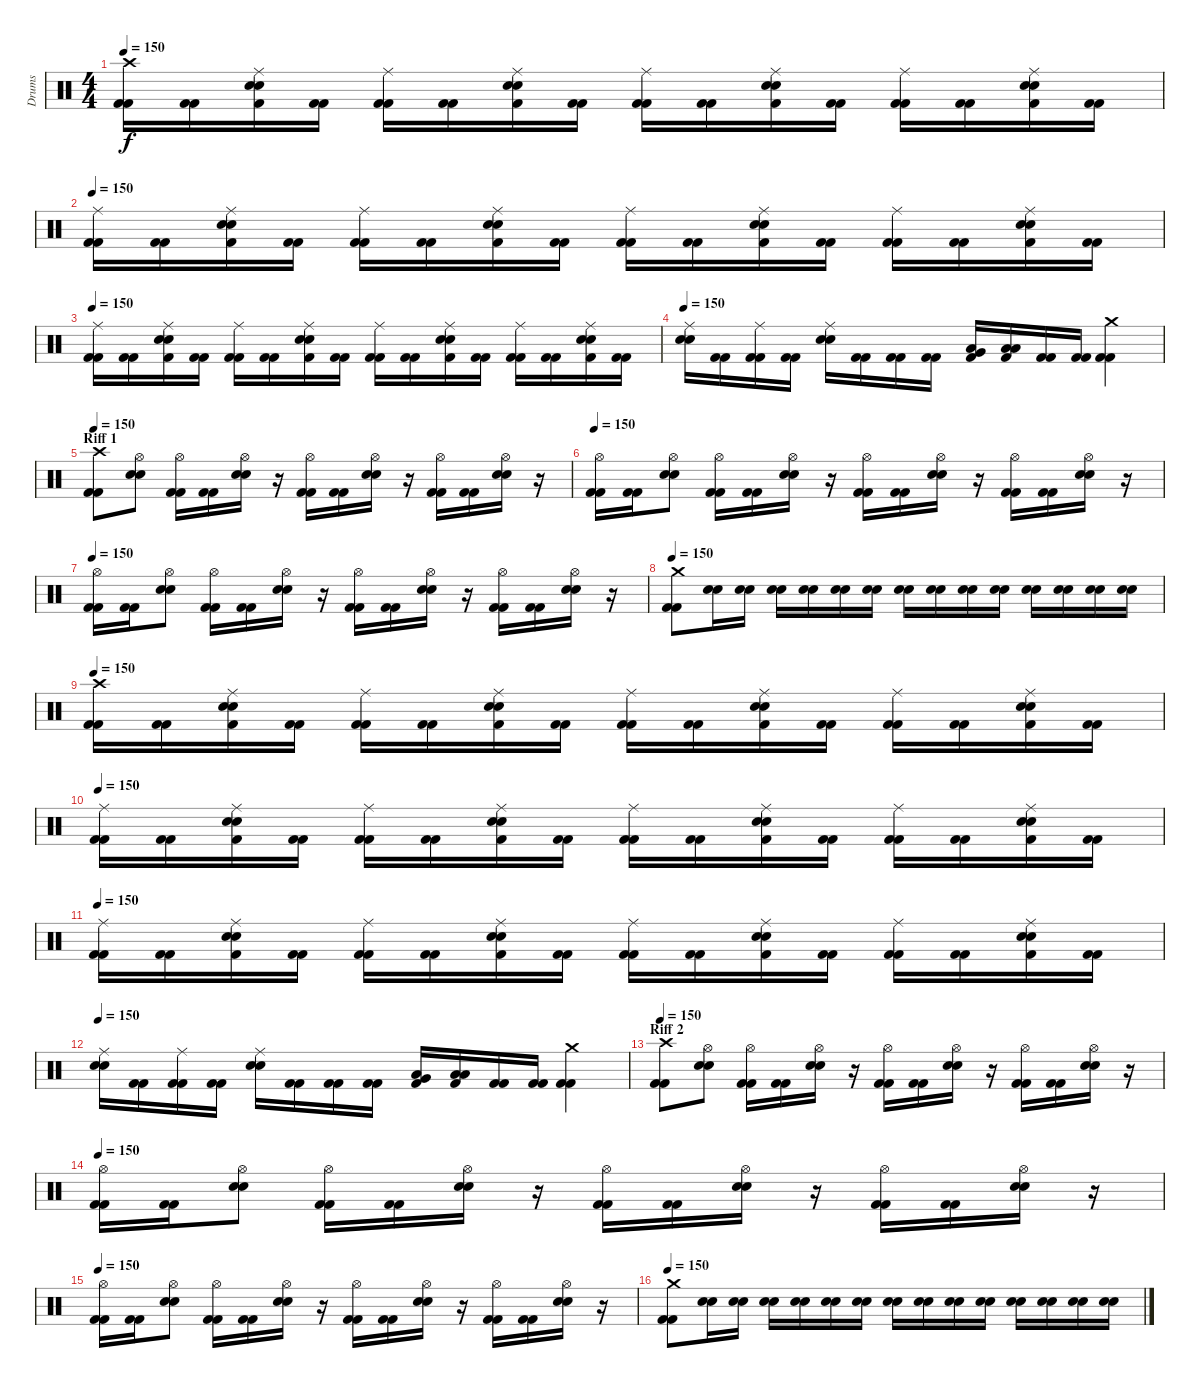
\track ("Drums" "Drums") {instrument percussion}
\staff {score}
\articulation defaults
\ts (4 4)
\tempo 150
\clef neutral
\ks c
("Crash high (hit)" "Kick (hit) 2" "Kick (hit) 2").16{dy f} ("Kick (hit) 2" "Kick (hit) 2").16 ("Ride (middle)" "Snare (hit) 2" "Snare (hit) 2" "Kick (hit) 2").16 ("Kick (hit) 2" "Kick (hit) 2").16 ("Ride (middle)" "Kick (hit) 2" "Kick (hit) 2").16 ("Kick (hit) 2" "Kick (hit) 2").16 ("Ride (middle)" "Snare (hit) 2" "Snare (hit) 2" "Kick (hit) 2").16 ("Kick (hit) 2" "Kick (hit) 2").16 ("Ride (middle)" "Kick (hit) 2" "Kick (hit) 2").16 ("Kick (hit) 2" "Kick (hit) 2").16 ("Ride (middle)" "Snare (hit) 2" "Snare (hit) 2" "Kick (hit) 2").16 ("Kick (hit) 2" "Kick (hit) 2").16 ("Ride (middle)" "Kick (hit) 2" "Kick (hit) 2").16 ("Kick (hit) 2" "Kick (hit) 2").16 ("Ride (middle)" "Snare (hit) 2" "Snare (hit) 2" "Kick (hit) 2").16 ("Kick (hit) 2" "Kick (hit) 2").16 |
\tempo 150
("Ride (middle)" "Kick (hit) 2" "Kick (hit) 2").16 ("Kick (hit) 2" "Kick (hit) 2").16 ("Ride (middle)" "Snare (hit) 2" "Snare (hit) 2" "Kick (hit) 2").16 ("Kick (hit) 2" "Kick (hit) 2").16 ("Ride (middle)" "Kick (hit) 2" "Kick (hit) 2").16 ("Kick (hit) 2" "Kick (hit) 2").16 ("Ride (middle)" "Snare (hit) 2" "Snare (hit) 2" "Kick (hit) 2").16 ("Kick (hit) 2" "Kick (hit) 2").16 ("Ride (middle)" "Kick (hit) 2" "Kick (hit) 2").16 ("Kick (hit) 2" "Kick (hit) 2").16 ("Ride (middle)" "Snare (hit) 2" "Snare (hit) 2" "Kick (hit) 2").16 ("Kick (hit) 2" "Kick (hit) 2").16 ("Ride (middle)" "Kick (hit) 2" "Kick (hit) 2").16 ("Kick (hit) 2" "Kick (hit) 2").16 ("Ride (middle)" "Snare (hit) 2" "Snare (hit) 2" "Kick (hit) 2").16 ("Kick (hit) 2" "Kick (hit) 2").16 |
\tempo 150
("Ride (middle)" "Kick (hit) 2" "Kick (hit) 2").16 ("Kick (hit) 2" "Kick (hit) 2").16 ("Ride (middle)" "Snare (hit) 2" "Snare (hit) 2" "Kick (hit) 2").16 ("Kick (hit) 2" "Kick (hit) 2").16 ("Ride (middle)" "Kick (hit) 2" "Kick (hit) 2").16 ("Kick (hit) 2" "Kick (hit) 2").16 ("Ride (middle)" "Snare (hit) 2" "Snare (hit) 2" "Kick (hit) 2").16 ("Kick (hit) 2" "Kick (hit) 2").16 ("Ride (middle)" "Kick (hit) 2" "Kick (hit) 2").16 ("Kick (hit) 2" "Kick (hit) 2").16 ("Ride (middle)" "Snare (hit) 2" "Snare (hit) 2" "Kick (hit) 2").16 ("Kick (hit) 2" "Kick (hit) 2").16 ("Ride (middle)" "Kick (hit) 2" "Kick (hit) 2").16 ("Kick (hit) 2" "Kick (hit) 2").16 ("Ride (middle)" "Snare (hit) 2" "Snare (hit) 2" "Kick (hit) 2").16 ("Kick (hit) 2" "Kick (hit) 2").16 |
\tempo 150
("Ride (middle)" "Snare (hit) 2" "Snare (hit) 2").16 ("Kick (hit) 2" "Kick (hit) 2").16 ("Ride (middle)" "Kick (hit) 2" "Kick (hit) 2").16 ("Kick (hit) 2" "Kick (hit) 2").16 ("Ride (middle)" "Snare (hit) 2" "Snare (hit) 2").16 ("Kick (hit) 2" "Kick (hit) 2").16 ("Kick (hit) 2" "Kick (hit) 2").16 ("Kick (hit) 2" "Kick (hit) 2").16 ("Very Low Tom (hit)" "Low Tom (hit)" "Kick (hit) 2").16 ("Low Tom (hit)" "Low Tom (hit)" "Kick (hit) 2").16 ("Kick (hit) 2" "Kick (hit) 2").16 ("Kick (hit) 2" "Kick (hit) 2").16 ("Crash medium (hit)" "Kick (hit) 2" "Kick (hit) 2").4 |
\section ("" "Riff 1")
\tempo 150
("Crash high (hit)" "Kick (hit) 2" "Kick (hit) 2").8 ("Hi-Hat (open)" "Snare (hit) 2" "Snare (hit) 2").8 ("Hi-Hat (open)" "Kick (hit) 2" "Kick (hit) 2").16 ("Kick (hit) 2" "Kick (hit) 2").16 ("Hi-Hat (open)" "Snare (hit) 2" "Snare (hit) 2").16 r.16 ("Hi-Hat (open)" "Kick (hit) 2" "Kick (hit) 2").16 ("Kick (hit) 2" "Kick (hit) 2").16 ("Hi-Hat (open)" "Snare (hit) 2" "Snare (hit) 2").16 r.16 ("Hi-Hat (open)" "Kick (hit) 2" "Kick (hit) 2").16 ("Kick (hit) 2" "Kick (hit) 2").16 ("Hi-Hat (open)" "Snare (hit) 2" "Snare (hit) 2").16 r.16 |
\tempo 150
("Hi-Hat (open)" "Kick (hit) 2" "Kick (hit) 2").16 ("Kick (hit) 2" "Kick (hit) 2").16 ("Hi-Hat (open)" "Snare (hit) 2" "Snare (hit) 2").8 ("Hi-Hat (open)" "Kick (hit) 2" "Kick (hit) 2").16 ("Kick (hit) 2" "Kick (hit) 2").16 ("Hi-Hat (open)" "Snare (hit) 2" "Snare (hit) 2").16 r.16 ("Hi-Hat (open)" "Kick (hit) 2" "Kick (hit) 2").16 ("Kick (hit) 2" "Kick (hit) 2").16 ("Hi-Hat (open)" "Snare (hit) 2" "Snare (hit) 2").16 r.16 ("Hi-Hat (open)" "Kick (hit) 2" "Kick (hit) 2").16 ("Kick (hit) 2" "Kick (hit) 2").16 ("Hi-Hat (open)" "Snare (hit) 2" "Snare (hit) 2").16 r.16 |
\tempo 150
("Hi-Hat (open)" "Kick (hit) 2" "Kick (hit) 2").16 ("Kick (hit) 2" "Kick (hit) 2").16 ("Hi-Hat (open)" "Snare (hit) 2" "Snare (hit) 2").8 ("Hi-Hat (open)" "Kick (hit) 2" "Kick (hit) 2").16 ("Kick (hit) 2" "Kick (hit) 2").16 ("Hi-Hat (open)" "Snare (hit) 2" "Snare (hit) 2").16 r.16 ("Hi-Hat (open)" "Kick (hit) 2" "Kick (hit) 2").16 ("Kick (hit) 2" "Kick (hit) 2").16 ("Hi-Hat (open)" "Snare (hit) 2" "Snare (hit) 2").16 r.16 ("Hi-Hat (open)" "Kick (hit) 2" "Kick (hit) 2").16 ("Kick (hit) 2" "Kick (hit) 2").16 ("Hi-Hat (open)" "Snare (hit) 2" "Snare (hit) 2").16 r.16 |
\tempo 150
("Crash medium (hit)" "Kick (hit) 2" "Kick (hit) 2").8 ("Snare (hit) 2" "Snare (hit) 2").16 ("Snare (hit) 2" "Snare (hit) 2").16 ("Snare (hit) 2" "Snare (hit) 2").16 ("Snare (hit) 2" "Snare (hit) 2").16 ("Snare (hit) 2" "Snare (hit) 2").16 ("Snare (hit) 2" "Snare (hit) 2").16 ("Snare (hit) 2" "Snare (hit) 2").16 ("Snare (hit) 2" "Snare (hit) 2").16 ("Snare (hit) 2" "Snare (hit) 2").16 ("Snare (hit) 2" "Snare (hit) 2").16 ("Snare (hit) 2" "Snare (hit) 2").16 ("Snare (hit) 2" "Snare (hit) 2").16 ("Snare (hit) 2" "Snare (hit) 2").16 ("Snare (hit) 2" "Snare (hit) 2").16 |
\tempo 150
("Crash high (hit)" "Kick (hit) 2" "Kick (hit) 2").16 ("Kick (hit) 2" "Kick (hit) 2").16 ("Ride (middle)" "Snare (hit) 2" "Snare (hit) 2" "Kick (hit) 2").16 ("Kick (hit) 2" "Kick (hit) 2").16 ("Ride (middle)" "Kick (hit) 2" "Kick (hit) 2").16 ("Kick (hit) 2" "Kick (hit) 2").16 ("Ride (middle)" "Snare (hit) 2" "Snare (hit) 2" "Kick (hit) 2").16 ("Kick (hit) 2" "Kick (hit) 2").16 ("Ride (middle)" "Kick (hit) 2" "Kick (hit) 2").16 ("Kick (hit) 2" "Kick (hit) 2").16 ("Ride (middle)" "Snare (hit) 2" "Snare (hit) 2" "Kick (hit) 2").16 ("Kick (hit) 2" "Kick (hit) 2").16 ("Ride (middle)" "Kick (hit) 2" "Kick (hit) 2").16 ("Kick (hit) 2" "Kick (hit) 2").16 ("Ride (middle)" "Snare (hit) 2" "Snare (hit) 2" "Kick (hit) 2").16 ("Kick (hit) 2" "Kick (hit) 2").16 |
\tempo 150
("Ride (middle)" "Kick (hit) 2" "Kick (hit) 2").16 ("Kick (hit) 2" "Kick (hit) 2").16 ("Ride (middle)" "Snare (hit) 2" "Snare (hit) 2" "Kick (hit) 2").16 ("Kick (hit) 2" "Kick (hit) 2").16 ("Ride (middle)" "Kick (hit) 2" "Kick (hit) 2").16 ("Kick (hit) 2" "Kick (hit) 2").16 ("Ride (middle)" "Snare (hit) 2" "Snare (hit) 2" "Kick (hit) 2").16 ("Kick (hit) 2" "Kick (hit) 2").16 ("Ride (middle)" "Kick (hit) 2" "Kick (hit) 2").16 ("Kick (hit) 2" "Kick (hit) 2").16 ("Ride (middle)" "Snare (hit) 2" "Snare (hit) 2" "Kick (hit) 2").16 ("Kick (hit) 2" "Kick (hit) 2").16 ("Ride (middle)" "Kick (hit) 2" "Kick (hit) 2").16 ("Kick (hit) 2" "Kick (hit) 2").16 ("Ride (middle)" "Snare (hit) 2" "Snare (hit) 2" "Kick (hit) 2").16 ("Kick (hit) 2" "Kick (hit) 2").16 |
\tempo 150
("Ride (middle)" "Kick (hit) 2" "Kick (hit) 2").16 ("Kick (hit) 2" "Kick (hit) 2").16 ("Ride (middle)" "Snare (hit) 2" "Snare (hit) 2" "Kick (hit) 2").16 ("Kick (hit) 2" "Kick (hit) 2").16 ("Ride (middle)" "Kick (hit) 2" "Kick (hit) 2").16 ("Kick (hit) 2" "Kick (hit) 2").16 ("Ride (middle)" "Snare (hit) 2" "Snare (hit) 2" "Kick (hit) 2").16 ("Kick (hit) 2" "Kick (hit) 2").16 ("Ride (middle)" "Kick (hit) 2" "Kick (hit) 2").16 ("Kick (hit) 2" "Kick (hit) 2").16 ("Ride (middle)" "Snare (hit) 2" "Snare (hit) 2" "Kick (hit) 2").16 ("Kick (hit) 2" "Kick (hit) 2").16 ("Ride (middle)" "Kick (hit) 2" "Kick (hit) 2").16 ("Kick (hit) 2" "Kick (hit) 2").16 ("Ride (middle)" "Snare (hit) 2" "Snare (hit) 2" "Kick (hit) 2").16 ("Kick (hit) 2" "Kick (hit) 2").16 |
\tempo 150
("Ride (middle)" "Snare (hit) 2" "Snare (hit) 2").16 ("Kick (hit) 2" "Kick (hit) 2").16 ("Ride (middle)" "Kick (hit) 2" "Kick (hit) 2").16 ("Kick (hit) 2" "Kick (hit) 2").16 ("Ride (middle)" "Snare (hit) 2" "Snare (hit) 2").16 ("Kick (hit) 2" "Kick (hit) 2").16 ("Kick (hit) 2" "Kick (hit) 2").16 ("Kick (hit) 2" "Kick (hit) 2").16 ("Very Low Tom (hit)" "Low Tom (hit)" "Kick (hit) 2").16 ("Low Tom (hit)" "Low Tom (hit)" "Kick (hit) 2").16 ("Kick (hit) 2" "Kick (hit) 2").16 ("Kick (hit) 2" "Kick (hit) 2").16 ("Crash medium (hit)" "Kick (hit) 2" "Kick (hit) 2").4 |
\section ("" "Riff 2")
\tempo 150
("Crash high (hit)" "Kick (hit) 2" "Kick (hit) 2").8 ("Hi-Hat (open)" "Snare (hit) 2" "Snare (hit) 2").8 ("Hi-Hat (open)" "Kick (hit) 2" "Kick (hit) 2").16 ("Kick (hit) 2" "Kick (hit) 2").16 ("Hi-Hat (open)" "Snare (hit) 2" "Snare (hit) 2").16 r.16 ("Hi-Hat (open)" "Kick (hit) 2" "Kick (hit) 2").16 ("Kick (hit) 2" "Kick (hit) 2").16 ("Hi-Hat (open)" "Snare (hit) 2" "Snare (hit) 2").16 r.16 ("Hi-Hat (open)" "Kick (hit) 2" "Kick (hit) 2").16 ("Kick (hit) 2" "Kick (hit) 2").16 ("Hi-Hat (open)" "Snare (hit) 2" "Snare (hit) 2").16 r.16 |
\tempo 150
("Hi-Hat (open)" "Kick (hit) 2" "Kick (hit) 2").16 ("Kick (hit) 2" "Kick (hit) 2").16 ("Hi-Hat (open)" "Snare (hit) 2" "Snare (hit) 2").8 ("Hi-Hat (open)" "Kick (hit) 2" "Kick (hit) 2").16 ("Kick (hit) 2" "Kick (hit) 2").16 ("Hi-Hat (open)" "Snare (hit) 2" "Snare (hit) 2").16 r.16 ("Hi-Hat (open)" "Kick (hit) 2" "Kick (hit) 2").16 ("Kick (hit) 2" "Kick (hit) 2").16 ("Hi-Hat (open)" "Snare (hit) 2" "Snare (hit) 2").16 r.16 ("Hi-Hat (open)" "Kick (hit) 2" "Kick (hit) 2").16 ("Kick (hit) 2" "Kick (hit) 2").16 ("Hi-Hat (open)" "Snare (hit) 2" "Snare (hit) 2").16 r.16 |
\tempo 150
("Hi-Hat (open)" "Kick (hit) 2" "Kick (hit) 2").16 ("Kick (hit) 2" "Kick (hit) 2").16 ("Hi-Hat (open)" "Snare (hit) 2" "Snare (hit) 2").8 ("Hi-Hat (open)" "Kick (hit) 2" "Kick (hit) 2").16 ("Kick (hit) 2" "Kick (hit) 2").16 ("Hi-Hat (open)" "Snare (hit) 2" "Snare (hit) 2").16 r.16 ("Hi-Hat (open)" "Kick (hit) 2" "Kick (hit) 2").16 ("Kick (hit) 2" "Kick (hit) 2").16 ("Hi-Hat (open)" "Snare (hit) 2" "Snare (hit) 2").16 r.16 ("Hi-Hat (open)" "Kick (hit) 2" "Kick (hit) 2").16 ("Kick (hit) 2" "Kick (hit) 2").16 ("Hi-Hat (open)" "Snare (hit) 2" "Snare (hit) 2").16 r.16 |
\tempo 150
("Crash medium (hit)" "Kick (hit) 2" "Kick (hit) 2").8 ("Snare (hit) 2" "Snare (hit) 2").16 ("Snare (hit) 2" "Snare (hit) 2").16 ("Snare (hit) 2" "Snare (hit) 2").16 ("Snare (hit) 2" "Snare (hit) 2").16 ("Snare (hit) 2" "Snare (hit) 2").16 ("Snare (hit) 2" "Snare (hit) 2").16 ("Snare (hit) 2" "Snare (hit) 2").16 ("Snare (hit) 2" "Snare (hit) 2").16 ("Snare (hit) 2" "Snare (hit) 2").16 ("Snare (hit) 2" "Snare (hit) 2").16 ("Snare (hit) 2" "Snare (hit) 2").16 ("Snare (hit) 2" "Snare (hit) 2").16 ("Snare (hit) 2" "Snare (hit) 2").16 ("Snare (hit) 2" "Snare (hit) 2").16
